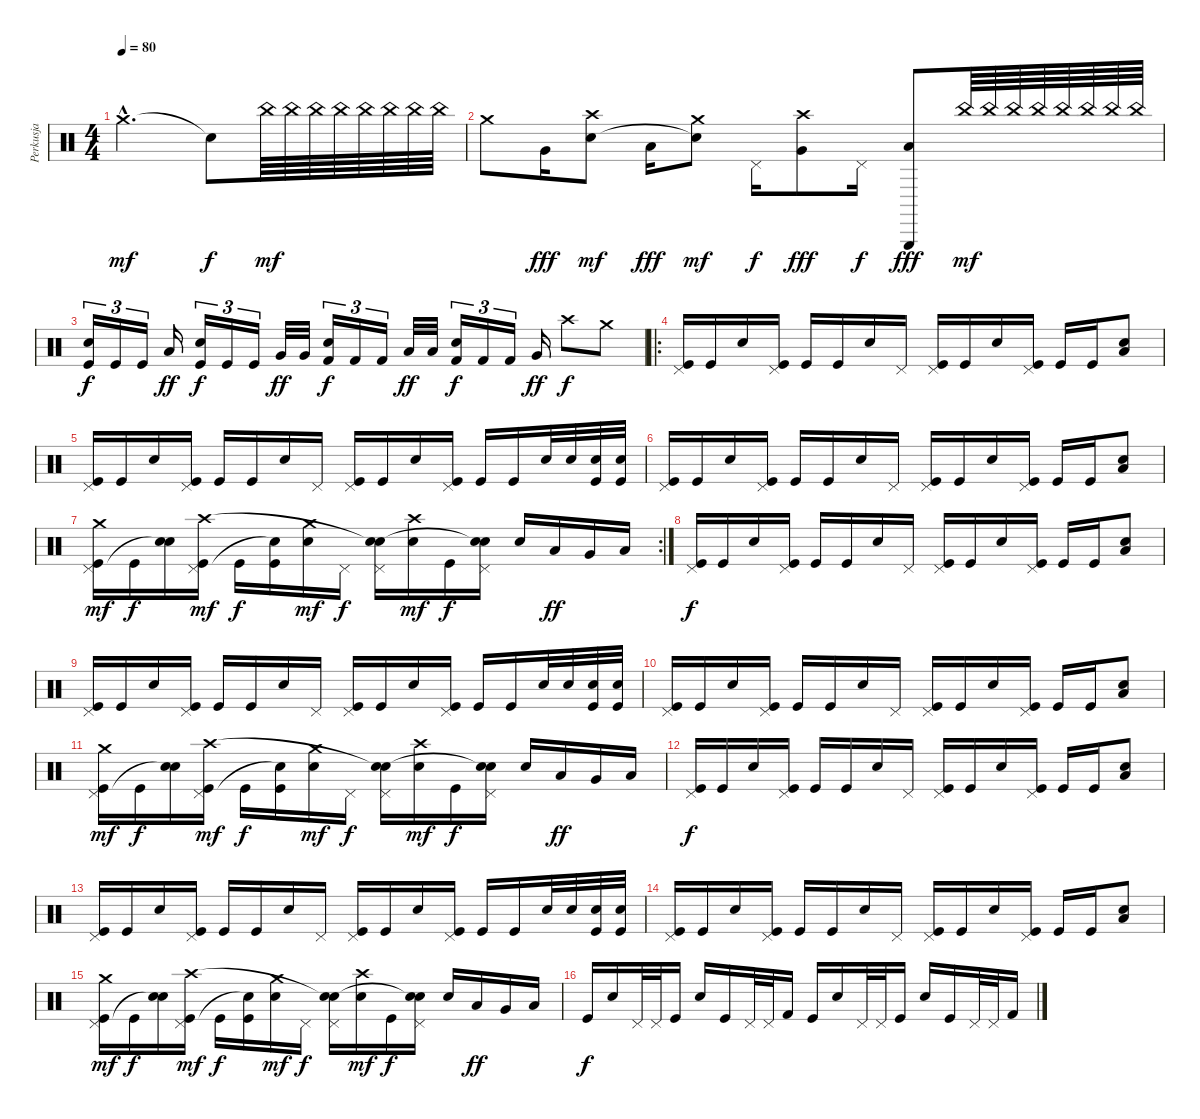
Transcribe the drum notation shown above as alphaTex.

\track ("Perkusja" "Perkusja") {instrument percussion}
\staff {score}
\articulation defaults
\ts (4 4)
\tempo 80
\clef neutral
\ks c "Crash medium (hit)"{hac}.2{d dy mf} "Snare (hit)"{t}.8{dy f} "China (hit)".64{dy mf} "China (hit)".64 "China (hit)".64 "China (hit)".64 "China (hit)".64 "China (hit)".64 "China (hit)".64 "China (hit)".64
|
"Crash medium (hit)".8 "Very Low Tom (hit)".16{dy fff} ("Crash high (hit)" "Snare (hit)"{t}).8{dy mf} "Low Floor Tom (hit)".16{dy fff} ("Crash medium (hit)" "Snare (hit)"{t}).8{dy mf} "Pedal Hi-Hat (hit)".16{dy f} ("Crash high (hit)" "Very Low Tom (hit)").8{dy fff} "Pedal Hi-Hat (hit)".16{dy f} ("Triangle (hit)" "Low Floor Tom (hit)").8{dy fff} "China (hit)".64{dy mf} "China (hit)".64 "China (hit)".64 "China (hit)".64 "China (hit)".64 "China (hit)".64 "China (hit)".64 "China (hit)".64 |
("Kick (hit)" "Snare (hit) 2").16{tu (3 2) dy f} "Kick (hit)".16{tu (3 2)} "Kick (hit)".16{tu (3 2)} "Low Tom (hit)".16{dy ff} ("Kick (hit)" "Snare (hit) 2").16{tu (3 2) dy f} "Kick (hit)".16{tu (3 2)} "Kick (hit)".16{tu (3 2)} "Very Low Tom (hit)".32{dy ff} "Very Low Tom (hit)".32 ("Kick (hit) 2" "Electric Snare (hit)").16{tu (3 2) dy f} "Kick (hit) 2".16{tu (3 2)} "Kick (hit) 2".16{tu (3 2)} "Low Tom (hit)".32{dy ff} "Low Tom (hit)".32 ("Kick (hit) 2" "Electric Snare (hit)").16{tu (3 2) dy f} "Kick (hit) 2".16{tu (3 2)} "Kick (hit) 2".16{tu (3 2)} "Very Low Tom (hit)".16{dy ff} "Crash high (hit)".8{dy f} "Crash medium (hit)".8 |
\ro
("Kick (hit)" "Pedal Hi-Hat (hit)").16 "Kick (hit)".16 "Electric Snare (hit)".16 ("Kick (hit)" "Pedal Hi-Hat (hit)").16 "Kick (hit)".16 "Kick (hit)".16 "Electric Snare (hit)".16 "Pedal Hi-Hat (hit)".16 ("Kick (hit)" "Pedal Hi-Hat (hit)").16 "Kick (hit)".16 "Electric Snare (hit)".16 ("Kick (hit)" "Pedal Hi-Hat (hit)").16 "Kick (hit)".16 "Kick (hit)".16 ("Electric Snare (hit)" "Low Tom (hit)").8 |
("Kick (hit)" "Pedal Hi-Hat (hit)").16 "Kick (hit)".16 "Electric Snare (hit)".16 ("Kick (hit)" "Pedal Hi-Hat (hit)").16 "Kick (hit)".16 "Kick (hit)".16 "Electric Snare (hit)".16 "Pedal Hi-Hat (hit)".16 ("Kick (hit)" "Pedal Hi-Hat (hit)").16 "Kick (hit)".16 "Electric Snare (hit)".16 ("Kick (hit)" "Pedal Hi-Hat (hit)").16 "Kick (hit)".16 "Kick (hit)".16 "Electric Snare (hit)".32 "Electric Snare (hit)".32 ("Electric Snare (hit)" "Kick (hit)").32 ("Electric Snare (hit)" "Kick (hit)").32 |
("Kick (hit)" "Pedal Hi-Hat (hit)").16 "Kick (hit)".16 "Electric Snare (hit)".16 ("Kick (hit)" "Pedal Hi-Hat (hit)").16 "Kick (hit)".16 "Kick (hit)".16 "Electric Snare (hit)".16 "Pedal Hi-Hat (hit)".16 ("Kick (hit)" "Pedal Hi-Hat (hit)").16 "Kick (hit)".16 "Electric Snare (hit)".16 ("Kick (hit)" "Pedal Hi-Hat (hit)").16 "Kick (hit)".16 "Kick (hit)".16 ("Electric Snare (hit)" "Low Tom (hit)").8 |
\rc 2
("Kick (hit)" "Pedal Hi-Hat (hit)" "Crash medium (hit)").16{dy mf} "Kick (hit)".16{dy f} ("Electric Snare (hit)" "Snare (hit)"{t}).16 ("Kick (hit)" "Pedal Hi-Hat (hit)" "Crash high (hit)").16{dy mf} "Kick (hit)".16{dy f} ("Kick (hit)" "Snare (hit)"{t}).16 ("Electric Snare (hit)" "Crash medium (hit)").16{dy mf} "Pedal Hi-Hat (hit)".16{dy f} ("Electric Snare (hit)" "Pedal Hi-Hat (hit)" "Snare (hit)"{t}).16 ("Snare (hit) 2" "Crash high (hit)").16{dy mf} "Kick (hit)".16{dy f} ("Electric Snare (hit)" "Pedal Hi-Hat (hit)" "Snare (hit)"{t}).16 "Snare (hit) 2".16 "Low Tom (hit)".16{dy ff} "Very Low Tom (hit)".16 "Low Floor Tom (hit)".16 |
("Kick (hit)" "Pedal Hi-Hat (hit)").16{dy f} "Kick (hit)".16 "Electric Snare (hit)".16 ("Kick (hit)" "Pedal Hi-Hat (hit)").16 "Kick (hit)".16 "Kick (hit)".16 "Electric Snare (hit)".16 "Pedal Hi-Hat (hit)".16 ("Kick (hit)" "Pedal Hi-Hat (hit)").16 "Kick (hit)".16 "Electric Snare (hit)".16 ("Kick (hit)" "Pedal Hi-Hat (hit)").16 "Kick (hit)".16 "Kick (hit)".16 ("Electric Snare (hit)" "Low Tom (hit)").8 |
("Kick (hit)" "Pedal Hi-Hat (hit)").16 "Kick (hit)".16 "Electric Snare (hit)".16 ("Kick (hit)" "Pedal Hi-Hat (hit)").16 "Kick (hit)".16 "Kick (hit)".16 "Electric Snare (hit)".16 "Pedal Hi-Hat (hit)".16 ("Kick (hit)" "Pedal Hi-Hat (hit)").16 "Kick (hit)".16 "Electric Snare (hit)".16 ("Kick (hit)" "Pedal Hi-Hat (hit)").16 "Kick (hit)".16 "Kick (hit)".16 "Electric Snare (hit)".32 "Electric Snare (hit)".32 ("Electric Snare (hit)" "Kick (hit)").32 ("Electric Snare (hit)" "Kick (hit)").32 |
("Kick (hit)" "Pedal Hi-Hat (hit)").16 "Kick (hit)".16 "Electric Snare (hit)".16 ("Kick (hit)" "Pedal Hi-Hat (hit)").16 "Kick (hit)".16 "Kick (hit)".16 "Electric Snare (hit)".16 "Pedal Hi-Hat (hit)".16 ("Kick (hit)" "Pedal Hi-Hat (hit)").16 "Kick (hit)".16 "Electric Snare (hit)".16 ("Kick (hit)" "Pedal Hi-Hat (hit)").16 "Kick (hit)".16 "Kick (hit)".16 ("Electric Snare (hit)" "Low Tom (hit)").8 |
("Kick (hit)" "Pedal Hi-Hat (hit)" "Crash medium (hit)").16{dy mf} "Kick (hit)".16{dy f} ("Electric Snare (hit)" "Snare (hit)"{t}).16 ("Kick (hit)" "Pedal Hi-Hat (hit)" "Crash high (hit)").16{dy mf} "Kick (hit)".16{dy f} ("Kick (hit)" "Snare (hit)"{t}).16 ("Electric Snare (hit)" "Crash medium (hit)").16{dy mf} "Pedal Hi-Hat (hit)".16{dy f} ("Electric Snare (hit)" "Pedal Hi-Hat (hit)" "Snare (hit)"{t}).16 ("Snare (hit) 2" "Crash high (hit)").16{dy mf} "Kick (hit)".16{dy f} ("Electric Snare (hit)" "Pedal Hi-Hat (hit)" "Snare (hit)"{t}).16 "Snare (hit) 2".16 "Low Tom (hit)".16{dy ff} "Very Low Tom (hit)".16 "Low Floor Tom (hit)".16 |
("Kick (hit)" "Pedal Hi-Hat (hit)").16{dy f} "Kick (hit)".16 "Electric Snare (hit)".16 ("Kick (hit)" "Pedal Hi-Hat (hit)").16 "Kick (hit)".16 "Kick (hit)".16 "Electric Snare (hit)".16 "Pedal Hi-Hat (hit)".16 ("Kick (hit)" "Pedal Hi-Hat (hit)").16 "Kick (hit)".16 "Electric Snare (hit)".16 ("Kick (hit)" "Pedal Hi-Hat (hit)").16 "Kick (hit)".16 "Kick (hit)".16 ("Electric Snare (hit)" "Low Tom (hit)").8 |
("Kick (hit)" "Pedal Hi-Hat (hit)").16 "Kick (hit)".16 "Electric Snare (hit)".16 ("Kick (hit)" "Pedal Hi-Hat (hit)").16 "Kick (hit)".16 "Kick (hit)".16 "Electric Snare (hit)".16 "Pedal Hi-Hat (hit)".16 ("Kick (hit)" "Pedal Hi-Hat (hit)").16 "Kick (hit)".16 "Electric Snare (hit)".16 ("Kick (hit)" "Pedal Hi-Hat (hit)").16 "Kick (hit)".16 "Kick (hit)".16 "Electric Snare (hit)".32 "Electric Snare (hit)".32 ("Electric Snare (hit)" "Kick (hit)").32 ("Electric Snare (hit)" "Kick (hit)").32 |
("Kick (hit)" "Pedal Hi-Hat (hit)").16 "Kick (hit)".16 "Electric Snare (hit)".16 ("Kick (hit)" "Pedal Hi-Hat (hit)").16 "Kick (hit)".16 "Kick (hit)".16 "Electric Snare (hit)".16 "Pedal Hi-Hat (hit)".16 ("Kick (hit)" "Pedal Hi-Hat (hit)").16 "Kick (hit)".16 "Electric Snare (hit)".16 ("Kick (hit)" "Pedal Hi-Hat (hit)").16 "Kick (hit)".16 "Kick (hit)".16 ("Electric Snare (hit)" "Low Tom (hit)").8 |
("Kick (hit)" "Pedal Hi-Hat (hit)" "Crash medium (hit)").16{dy mf} "Kick (hit)".16{dy f} ("Electric Snare (hit)" "Snare (hit)"{t}).16 ("Kick (hit)" "Pedal Hi-Hat (hit)" "Crash high (hit)").16{dy mf} "Kick (hit)".16{dy f} ("Kick (hit)" "Snare (hit)"{t}).16 ("Electric Snare (hit)" "Crash medium (hit)").16{dy mf} "Pedal Hi-Hat (hit)".16{dy f} ("Electric Snare (hit)" "Pedal Hi-Hat (hit)" "Snare (hit)"{t}).16 ("Snare (hit) 2" "Crash high (hit)").16{dy mf} "Kick (hit)".16{dy f} ("Electric Snare (hit)" "Pedal Hi-Hat (hit)" "Snare (hit)"{t}).16 "Snare (hit) 2".16 "Low Tom (hit)".16{dy ff} "Very Low Tom (hit)".16 "Low Floor Tom (hit)".16 |
"Kick (hit)".16{dy f} "Electric Snare (hit)".16 "Pedal Hi-Hat (hit)".32 "Pedal Hi-Hat (hit)".32 "Kick (hit)".16 "Electric Snare (hit)".16 "Kick (hit)".16 "Pedal Hi-Hat (hit)".32 "Pedal Hi-Hat (hit)".32 "Kick (hit) 2".16 "Kick (hit)".16 "Electric Snare (hit)".16 "Pedal Hi-Hat (hit)".32 "Pedal Hi-Hat (hit)".32 "Kick (hit)".16 "Electric Snare (hit)".16 "Kick (hit)".16 "Pedal Hi-Hat (hit)".32 "Pedal Hi-Hat (hit)".32 "Kick (hit) 2".16
